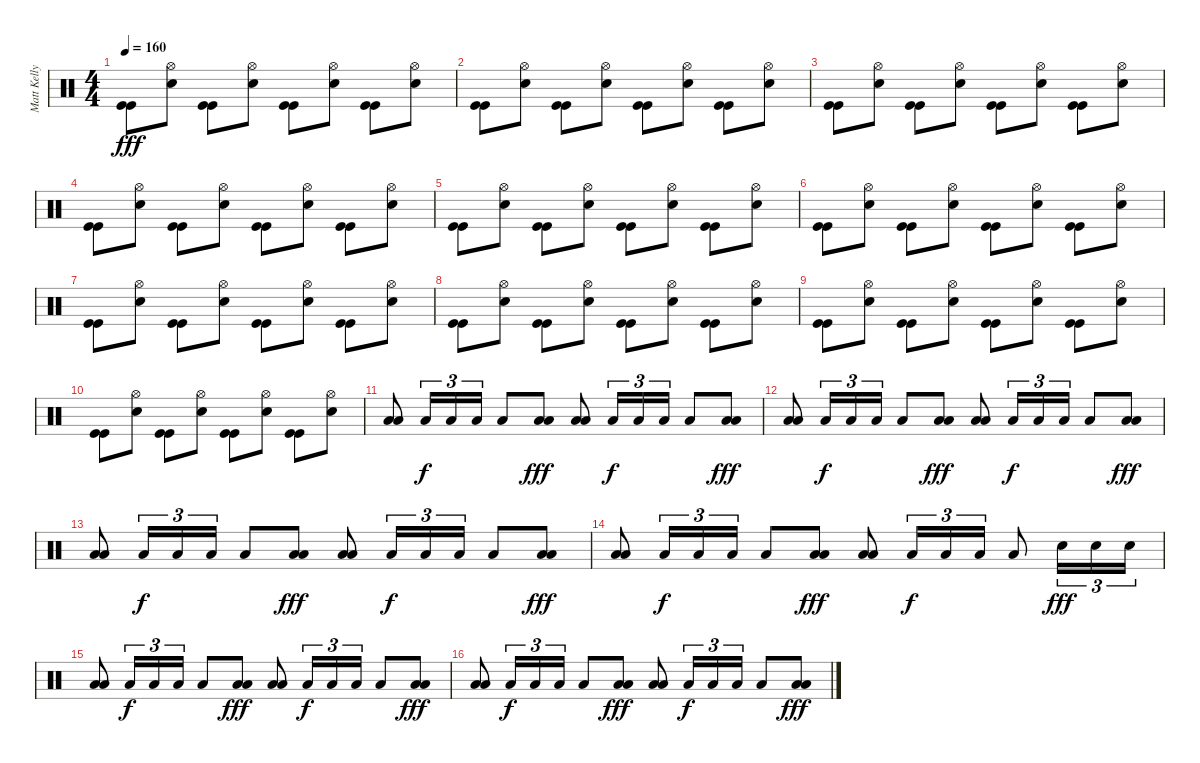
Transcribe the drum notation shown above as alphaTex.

\track ("Matt Kelly" "Matt Kelly") {instrument percussion}
\staff {score}
\articulation defaults
\ts (4 4)
\tempo 160
\clef neutral
\ks c
("Kick (hit)" "Kick (hit)").8{dy fff} ("Snare (hit) 2" "Hi-Hat (open)").8 ("Kick (hit)" "Kick (hit)").8 ("Snare (hit) 2" "Hi-Hat (open)").8 ("Kick (hit)" "Kick (hit)").8 ("Snare (hit) 2" "Hi-Hat (open)").8 ("Kick (hit)" "Kick (hit)").8 ("Snare (hit) 2" "Hi-Hat (open)").8 |
("Kick (hit)" "Kick (hit)").8 ("Snare (hit) 2" "Hi-Hat (open)").8 ("Kick (hit)" "Kick (hit)").8 ("Snare (hit) 2" "Hi-Hat (open)").8 ("Kick (hit)" "Kick (hit)").8 ("Snare (hit) 2" "Hi-Hat (open)").8 ("Kick (hit)" "Kick (hit)").8 ("Snare (hit) 2" "Hi-Hat (open)").8 |
("Kick (hit)" "Kick (hit)").8 ("Snare (hit) 2" "Hi-Hat (open)").8 ("Kick (hit)" "Kick (hit)").8 ("Snare (hit) 2" "Hi-Hat (open)").8 ("Kick (hit)" "Kick (hit)").8 ("Snare (hit) 2" "Hi-Hat (open)").8 ("Kick (hit)" "Kick (hit)").8 ("Snare (hit) 2" "Hi-Hat (open)").8 |
("Kick (hit)" "Kick (hit)").8 ("Snare (hit) 2" "Hi-Hat (open)").8 ("Kick (hit)" "Kick (hit)").8 ("Snare (hit) 2" "Hi-Hat (open)").8 ("Kick (hit)" "Kick (hit)").8 ("Snare (hit) 2" "Hi-Hat (open)").8 ("Kick (hit)" "Kick (hit)").8 ("Snare (hit) 2" "Hi-Hat (open)").8 |
("Kick (hit)" "Kick (hit)").8 ("Snare (hit) 2" "Hi-Hat (open)").8 ("Kick (hit)" "Kick (hit)").8 ("Snare (hit) 2" "Hi-Hat (open)").8 ("Kick (hit)" "Kick (hit)").8 ("Snare (hit) 2" "Hi-Hat (open)").8 ("Kick (hit)" "Kick (hit)").8 ("Snare (hit) 2" "Hi-Hat (open)").8 |
("Kick (hit)" "Kick (hit)").8 ("Snare (hit) 2" "Hi-Hat (open)").8 ("Kick (hit)" "Kick (hit)").8 ("Snare (hit) 2" "Hi-Hat (open)").8 ("Kick (hit)" "Kick (hit)").8 ("Snare (hit) 2" "Hi-Hat (open)").8 ("Kick (hit)" "Kick (hit)").8 ("Snare (hit) 2" "Hi-Hat (open)").8 |
("Kick (hit)" "Kick (hit)").8 ("Snare (hit) 2" "Hi-Hat (open)").8 ("Kick (hit)" "Kick (hit)").8 ("Snare (hit) 2" "Hi-Hat (open)").8 ("Kick (hit)" "Kick (hit)").8 ("Snare (hit) 2" "Hi-Hat (open)").8 ("Kick (hit)" "Kick (hit)").8 ("Snare (hit) 2" "Hi-Hat (open)").8 |
("Kick (hit)" "Kick (hit)").8 ("Snare (hit) 2" "Hi-Hat (open)").8 ("Kick (hit)" "Kick (hit)").8 ("Snare (hit) 2" "Hi-Hat (open)").8 ("Kick (hit)" "Kick (hit)").8 ("Snare (hit) 2" "Hi-Hat (open)").8 ("Kick (hit)" "Kick (hit)").8 ("Snare (hit) 2" "Hi-Hat (open)").8 |
("Kick (hit)" "Kick (hit)").8 ("Snare (hit) 2" "Hi-Hat (open)").8 ("Kick (hit)" "Kick (hit)").8 ("Snare (hit) 2" "Hi-Hat (open)").8 ("Kick (hit)" "Kick (hit)").8 ("Snare (hit) 2" "Hi-Hat (open)").8 ("Kick (hit)" "Kick (hit)").8 ("Snare (hit) 2" "Hi-Hat (open)").8 |
("Kick (hit)" "Kick (hit)").8 ("Snare (hit) 2" "Hi-Hat (open)").8 ("Kick (hit)" "Kick (hit)").8 ("Snare (hit) 2" "Hi-Hat (open)").8 ("Kick (hit)" "Kick (hit)").8 ("Snare (hit) 2" "Hi-Hat (open)").8 ("Kick (hit)" "Kick (hit)").8 ("Snare (hit) 2" "Hi-Hat (open)").8 |
("Low Floor Tom (hit)" "Low Floor Tom (hit)").8 "Low Floor Tom (hit)".16{tu (3 2) dy f} "Low Floor Tom (hit)".16{tu (3 2)} "Low Floor Tom (hit)".16{tu (3 2)} "Low Floor Tom (hit)".8 ("Low Floor Tom (hit)" "Low Floor Tom (hit)").8{dy fff} ("Low Floor Tom (hit)" "Low Floor Tom (hit)").8 "Low Floor Tom (hit)".16{tu (3 2) dy f} "Low Floor Tom (hit)".16{tu (3 2)} "Low Floor Tom (hit)".16{tu (3 2)} "Low Floor Tom (hit)".8 ("Low Floor Tom (hit)" "Low Floor Tom (hit)").8{dy fff} |
("Low Floor Tom (hit)" "Low Floor Tom (hit)").8 "Low Floor Tom (hit)".16{tu (3 2) dy f} "Low Floor Tom (hit)".16{tu (3 2)} "Low Floor Tom (hit)".16{tu (3 2)} "Low Floor Tom (hit)".8 ("Low Floor Tom (hit)" "Low Floor Tom (hit)").8{dy fff} ("Low Floor Tom (hit)" "Low Floor Tom (hit)").8 "Low Floor Tom (hit)".16{tu (3 2) dy f} "Low Floor Tom (hit)".16{tu (3 2)} "Low Floor Tom (hit)".16{tu (3 2)} "Low Floor Tom (hit)".8 ("Low Floor Tom (hit)" "Low Floor Tom (hit)").8{dy fff} |
("Low Floor Tom (hit)" "Low Floor Tom (hit)").8 "Low Floor Tom (hit)".16{tu (3 2) dy f} "Low Floor Tom (hit)".16{tu (3 2)} "Low Floor Tom (hit)".16{tu (3 2)} "Low Floor Tom (hit)".8 ("Low Floor Tom (hit)" "Low Floor Tom (hit)").8{dy fff} ("Low Floor Tom (hit)" "Low Floor Tom (hit)").8 "Low Floor Tom (hit)".16{tu (3 2) dy f} "Low Floor Tom (hit)".16{tu (3 2)} "Low Floor Tom (hit)".16{tu (3 2)} "Low Floor Tom (hit)".8 ("Low Floor Tom (hit)" "Low Floor Tom (hit)").8{dy fff} |
("Low Floor Tom (hit)" "Low Floor Tom (hit)").8 "Low Floor Tom (hit)".16{tu (3 2) dy f} "Low Floor Tom (hit)".16{tu (3 2)} "Low Floor Tom (hit)".16{tu (3 2)} "Low Floor Tom (hit)".8 ("Low Floor Tom (hit)" "Low Floor Tom (hit)").8{dy fff} ("Low Floor Tom (hit)" "Low Floor Tom (hit)").8 "Low Floor Tom (hit)".16{tu (3 2) dy f} "Low Floor Tom (hit)".16{tu (3 2)} "Low Floor Tom (hit)".16{tu (3 2)} "Low Floor Tom (hit)".8 "Snare (hit) 2".16{tu (3 2) dy fff} "Snare (hit) 2".16{tu (3 2)} "Snare (hit) 2".16{tu (3 2)} |
("Low Floor Tom (hit)" "Low Floor Tom (hit)").8 "Low Floor Tom (hit)".16{tu (3 2) dy f} "Low Floor Tom (hit)".16{tu (3 2)} "Low Floor Tom (hit)".16{tu (3 2)} "Low Floor Tom (hit)".8 ("Low Floor Tom (hit)" "Low Floor Tom (hit)").8{dy fff} ("Low Floor Tom (hit)" "Low Floor Tom (hit)").8 "Low Floor Tom (hit)".16{tu (3 2) dy f} "Low Floor Tom (hit)".16{tu (3 2)} "Low Floor Tom (hit)".16{tu (3 2)} "Low Floor Tom (hit)".8 ("Low Floor Tom (hit)" "Low Floor Tom (hit)").8{dy fff} |
("Low Floor Tom (hit)" "Low Floor Tom (hit)").8 "Low Floor Tom (hit)".16{tu (3 2) dy f} "Low Floor Tom (hit)".16{tu (3 2)} "Low Floor Tom (hit)".16{tu (3 2)} "Low Floor Tom (hit)".8 ("Low Floor Tom (hit)" "Low Floor Tom (hit)").8{dy fff} ("Low Floor Tom (hit)" "Low Floor Tom (hit)").8 "Low Floor Tom (hit)".16{tu (3 2) dy f} "Low Floor Tom (hit)".16{tu (3 2)} "Low Floor Tom (hit)".16{tu (3 2)} "Low Floor Tom (hit)".8 ("Low Floor Tom (hit)" "Low Floor Tom (hit)").8{dy fff}
